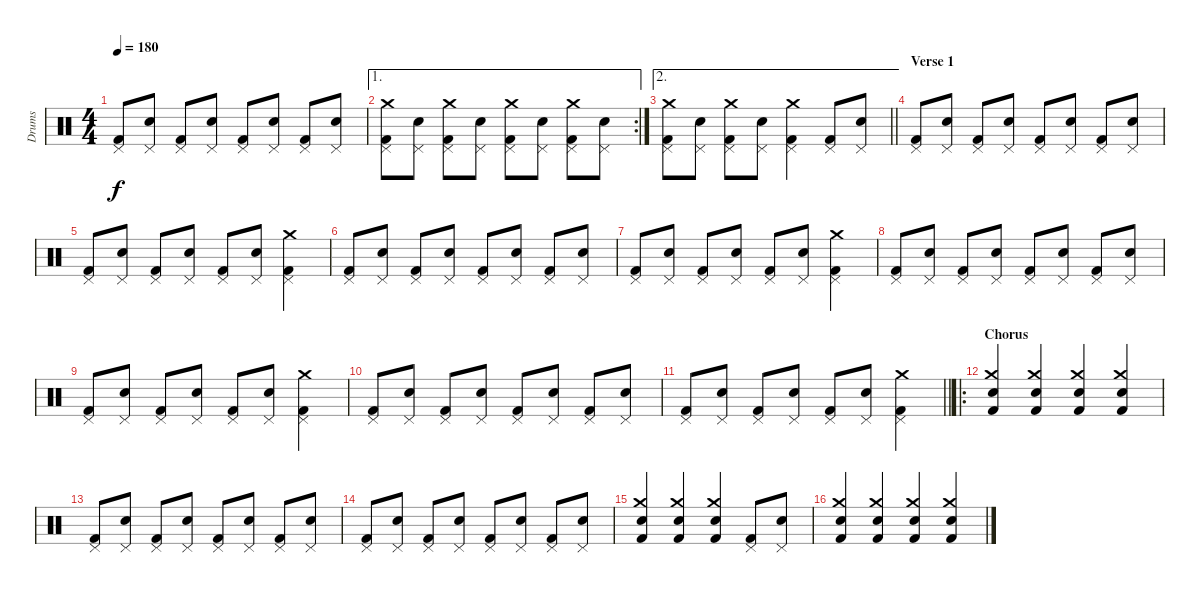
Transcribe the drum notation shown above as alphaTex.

\track ("Drums" "Drums") {instrument percussion}
\staff {score}
\articulation defaults
\ts (4 4)
\tempo 180
\clef neutral
\ks c
("Kick (hit) 2" "Pedal Hi-Hat (hit)").8{dy f} ("Snare (hit) 2" "Pedal Hi-Hat (hit)").8 ("Kick (hit) 2" "Pedal Hi-Hat (hit)").8 ("Snare (hit) 2" "Pedal Hi-Hat (hit)").8 ("Kick (hit) 2" "Pedal Hi-Hat (hit)").8 ("Snare (hit) 2" "Pedal Hi-Hat (hit)").8 ("Kick (hit) 2" "Pedal Hi-Hat (hit)").8 ("Snare (hit) 2" "Pedal Hi-Hat (hit)").8 |
\ae 1
\rc 2
("Crash medium (hit)" "Pedal Hi-Hat (hit)" "Kick (hit) 2").8 ("Snare (hit) 2" "Pedal Hi-Hat (hit)").8 ("Crash medium (hit)" "Pedal Hi-Hat (hit)" "Kick (hit) 2").8 ("Snare (hit) 2" "Pedal Hi-Hat (hit)").8 ("Crash medium (hit)" "Pedal Hi-Hat (hit)" "Kick (hit) 2").8 ("Snare (hit) 2" "Pedal Hi-Hat (hit)").8 ("Crash medium (hit)" "Pedal Hi-Hat (hit)" "Kick (hit) 2").8 ("Snare (hit) 2" "Pedal Hi-Hat (hit)").8 |
\ae 2
\barLineRight lightlight
("Crash medium (hit)" "Pedal Hi-Hat (hit)" "Kick (hit) 2").8 ("Snare (hit) 2" "Pedal Hi-Hat (hit)").8 ("Crash medium (hit)" "Pedal Hi-Hat (hit)" "Kick (hit) 2").8 ("Snare (hit) 2" "Pedal Hi-Hat (hit)").8 ("Crash medium (hit)" "Pedal Hi-Hat (hit)" "Kick (hit) 2").4 ("Kick (hit) 2" "Pedal Hi-Hat (hit)").8 ("Snare (hit) 2" "Pedal Hi-Hat (hit)").8 |
\section ("" "Verse 1")
("Kick (hit) 2" "Pedal Hi-Hat (hit)").8 ("Snare (hit) 2" "Pedal Hi-Hat (hit)").8 ("Kick (hit) 2" "Pedal Hi-Hat (hit)").8 ("Snare (hit) 2" "Pedal Hi-Hat (hit)").8 ("Kick (hit) 2" "Pedal Hi-Hat (hit)").8 ("Snare (hit) 2" "Pedal Hi-Hat (hit)").8 ("Kick (hit) 2" "Pedal Hi-Hat (hit)").8 ("Snare (hit) 2" "Pedal Hi-Hat (hit)").8 |
("Kick (hit) 2" "Pedal Hi-Hat (hit)").8 ("Snare (hit) 2" "Pedal Hi-Hat (hit)").8 ("Kick (hit) 2" "Pedal Hi-Hat (hit)").8 ("Snare (hit) 2" "Pedal Hi-Hat (hit)").8 ("Kick (hit) 2" "Pedal Hi-Hat (hit)").8 ("Snare (hit) 2" "Pedal Hi-Hat (hit)").8 ("Kick (hit) 2" "Pedal Hi-Hat (hit)" "Crash medium (hit)").4 |
("Kick (hit) 2" "Pedal Hi-Hat (hit)").8 ("Snare (hit) 2" "Pedal Hi-Hat (hit)").8 ("Kick (hit) 2" "Pedal Hi-Hat (hit)").8 ("Snare (hit) 2" "Pedal Hi-Hat (hit)").8 ("Kick (hit) 2" "Pedal Hi-Hat (hit)").8 ("Snare (hit) 2" "Pedal Hi-Hat (hit)").8 ("Kick (hit) 2" "Pedal Hi-Hat (hit)").8 ("Snare (hit) 2" "Pedal Hi-Hat (hit)").8 |
("Kick (hit) 2" "Pedal Hi-Hat (hit)").8 ("Snare (hit) 2" "Pedal Hi-Hat (hit)").8 ("Kick (hit) 2" "Pedal Hi-Hat (hit)").8 ("Snare (hit) 2" "Pedal Hi-Hat (hit)").8 ("Kick (hit) 2" "Pedal Hi-Hat (hit)").8 ("Snare (hit) 2" "Pedal Hi-Hat (hit)").8 ("Kick (hit) 2" "Pedal Hi-Hat (hit)" "Crash medium (hit)").4 |
("Kick (hit) 2" "Pedal Hi-Hat (hit)").8 ("Snare (hit) 2" "Pedal Hi-Hat (hit)").8 ("Kick (hit) 2" "Pedal Hi-Hat (hit)").8 ("Snare (hit) 2" "Pedal Hi-Hat (hit)").8 ("Kick (hit) 2" "Pedal Hi-Hat (hit)").8 ("Snare (hit) 2" "Pedal Hi-Hat (hit)").8 ("Kick (hit) 2" "Pedal Hi-Hat (hit)").8 ("Snare (hit) 2" "Pedal Hi-Hat (hit)").8 |
("Kick (hit) 2" "Pedal Hi-Hat (hit)").8 ("Snare (hit) 2" "Pedal Hi-Hat (hit)").8 ("Kick (hit) 2" "Pedal Hi-Hat (hit)").8 ("Snare (hit) 2" "Pedal Hi-Hat (hit)").8 ("Kick (hit) 2" "Pedal Hi-Hat (hit)").8 ("Snare (hit) 2" "Pedal Hi-Hat (hit)").8 ("Kick (hit) 2" "Pedal Hi-Hat (hit)" "Crash medium (hit)").4 |
("Kick (hit) 2" "Pedal Hi-Hat (hit)").8 ("Snare (hit) 2" "Pedal Hi-Hat (hit)").8 ("Kick (hit) 2" "Pedal Hi-Hat (hit)").8 ("Snare (hit) 2" "Pedal Hi-Hat (hit)").8 ("Kick (hit) 2" "Pedal Hi-Hat (hit)").8 ("Snare (hit) 2" "Pedal Hi-Hat (hit)").8 ("Kick (hit) 2" "Pedal Hi-Hat (hit)").8 ("Snare (hit) 2" "Pedal Hi-Hat (hit)").8 |
\barLineRight lightlight
("Kick (hit) 2" "Pedal Hi-Hat (hit)").8 ("Snare (hit) 2" "Pedal Hi-Hat (hit)").8 ("Kick (hit) 2" "Pedal Hi-Hat (hit)").8 ("Snare (hit) 2" "Pedal Hi-Hat (hit)").8 ("Kick (hit) 2" "Pedal Hi-Hat (hit)").8 ("Snare (hit) 2" "Pedal Hi-Hat (hit)").8 ("Kick (hit) 2" "Pedal Hi-Hat (hit)" "Crash medium (hit)").4 |
\ro
\section ("" "Chorus")
("Crash medium (hit)" "Electric Snare (hit)" "Kick (hit) 2").4 ("Crash medium (hit)" "Electric Snare (hit)" "Kick (hit) 2").4 ("Crash medium (hit)" "Electric Snare (hit)" "Kick (hit) 2").4 ("Crash medium (hit)" "Electric Snare (hit)" "Kick (hit) 2").4 |
("Kick (hit) 2" "Pedal Hi-Hat (hit)").8 ("Snare (hit) 2" "Pedal Hi-Hat (hit)").8 ("Kick (hit) 2" "Pedal Hi-Hat (hit)").8 ("Snare (hit) 2" "Pedal Hi-Hat (hit)").8 ("Kick (hit) 2" "Pedal Hi-Hat (hit)").8 ("Snare (hit) 2" "Pedal Hi-Hat (hit)").8 ("Kick (hit) 2" "Pedal Hi-Hat (hit)").8 ("Snare (hit) 2" "Pedal Hi-Hat (hit)").8 |
("Kick (hit) 2" "Pedal Hi-Hat (hit)").8 ("Snare (hit) 2" "Pedal Hi-Hat (hit)").8 ("Kick (hit) 2" "Pedal Hi-Hat (hit)").8 ("Snare (hit) 2" "Pedal Hi-Hat (hit)").8 ("Kick (hit) 2" "Pedal Hi-Hat (hit)").8 ("Snare (hit) 2" "Pedal Hi-Hat (hit)").8 ("Kick (hit) 2" "Pedal Hi-Hat (hit)").8 ("Snare (hit) 2" "Pedal Hi-Hat (hit)").8 |
("Crash medium (hit)" "Electric Snare (hit)" "Kick (hit) 2").4 ("Crash medium (hit)" "Electric Snare (hit)" "Kick (hit) 2").4 ("Crash medium (hit)" "Electric Snare (hit)" "Kick (hit) 2").4 ("Kick (hit) 2" "Pedal Hi-Hat (hit)").8 ("Snare (hit) 2" "Pedal Hi-Hat (hit)").8 |
("Crash medium (hit)" "Electric Snare (hit)" "Kick (hit) 2").4 ("Crash medium (hit)" "Electric Snare (hit)" "Kick (hit) 2").4 ("Crash medium (hit)" "Electric Snare (hit)" "Kick (hit) 2").4 ("Crash medium (hit)" "Electric Snare (hit)" "Kick (hit) 2").4
